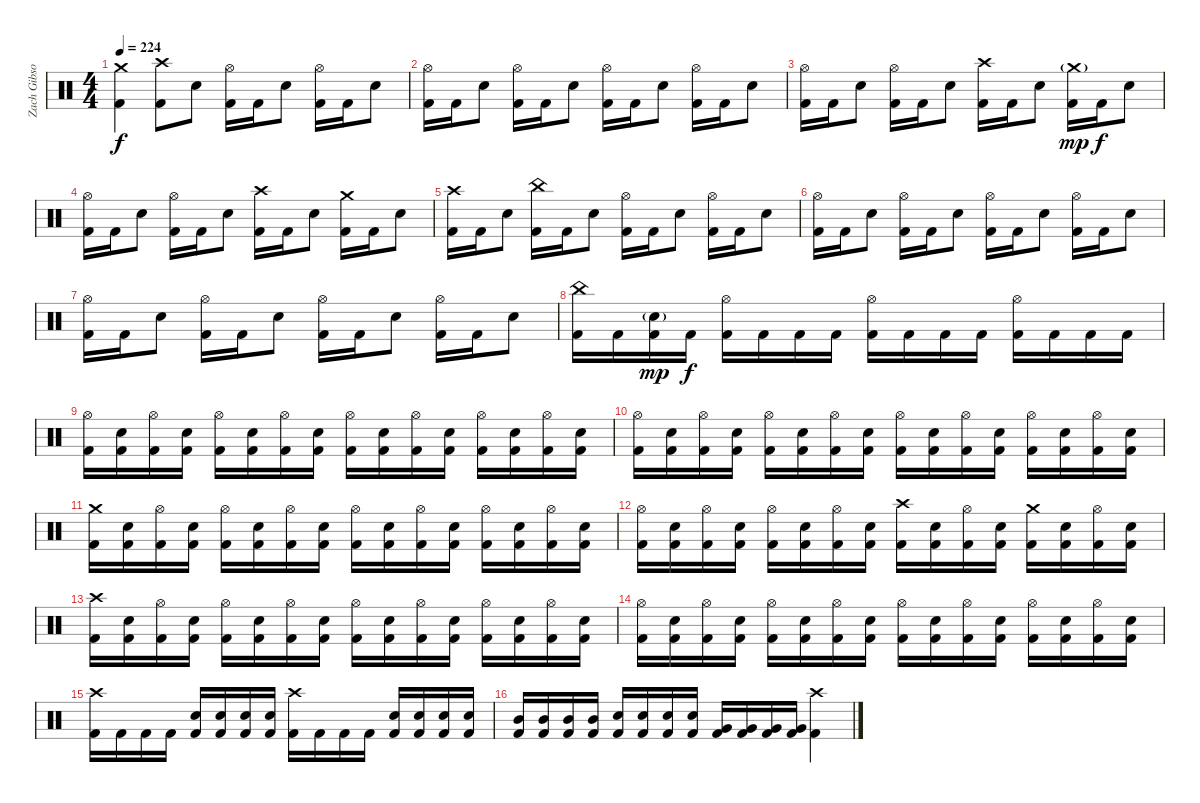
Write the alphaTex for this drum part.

\track ("Zach Gibson (Drums)" "Zach Gibso") {instrument percussion}
\staff {score}
\articulation defaults
\ts (4 4)
\tempo 224
\clef neutral
\ks c
("Crash medium (hit)" "Kick (hit) 2").4{dy f} ("Crash high (hit)" "Kick (hit) 2").8 "Snare (hit) 2".8 ("Hi-Hat (open)" "Kick (hit) 2").16 "Kick (hit) 2".16 "Snare (hit) 2".8 ("Hi-Hat (open)" "Kick (hit) 2").16 "Kick (hit) 2".16 "Snare (hit) 2".8 |
("Hi-Hat (open)" "Kick (hit) 2").16 "Kick (hit) 2".16 "Snare (hit) 2".8 ("Hi-Hat (open)" "Kick (hit) 2").16 "Kick (hit) 2".16 "Snare (hit) 2".8 ("Hi-Hat (open)" "Kick (hit) 2").16 "Kick (hit) 2".16 "Snare (hit) 2".8 ("Hi-Hat (open)" "Kick (hit) 2").16 "Kick (hit) 2".16 "Snare (hit) 2".8 |
("Hi-Hat (open)" "Kick (hit) 2").16 "Kick (hit) 2".16 "Snare (hit) 2".8 ("Hi-Hat (open)" "Kick (hit) 2").16 "Kick (hit) 2".16 "Snare (hit) 2".8 ("Crash high (hit)" "Kick (hit) 2").16 "Kick (hit) 2".16 "Snare (hit) 2".8 ("Crash medium (hit)"{g} "Kick (hit) 2").16{dy mp} "Kick (hit) 2".16{dy f} "Snare (hit) 2".8 |
("Hi-Hat (open)" "Kick (hit) 2").16 "Kick (hit) 2".16 "Snare (hit) 2".8 ("Hi-Hat (open)" "Kick (hit) 2").16 "Kick (hit) 2".16 "Snare (hit) 2".8 ("Crash high (hit)" "Kick (hit) 2").16 "Kick (hit) 2".16 "Snare (hit) 2".8 ("Crash medium (hit)" "Kick (hit) 2").16 "Kick (hit) 2".16 "Snare (hit) 2".8 |
("Crash high (hit)" "Kick (hit) 2").16 "Kick (hit) 2".16 "Snare (hit) 2".8 ("China (hit)" "Kick (hit) 2").16 "Kick (hit) 2".16 "Snare (hit) 2".8 ("Hi-Hat (open)" "Kick (hit) 2").16 "Kick (hit) 2".16 "Snare (hit) 2".8 ("Hi-Hat (open)" "Kick (hit) 2").16 "Kick (hit) 2".16 "Snare (hit) 2".8 |
("Hi-Hat (open)" "Kick (hit) 2").16 "Kick (hit) 2".16 "Snare (hit) 2".8 ("Hi-Hat (open)" "Kick (hit) 2").16 "Kick (hit) 2".16 "Snare (hit) 2".8 ("Hi-Hat (open)" "Kick (hit) 2").16 "Kick (hit) 2".16 "Snare (hit) 2".8 ("Hi-Hat (open)" "Kick (hit) 2").16 "Kick (hit) 2".16 "Snare (hit) 2".8 |
("Hi-Hat (open)" "Kick (hit) 2").16 "Kick (hit) 2".16 "Snare (hit) 2".8 ("Hi-Hat (open)" "Kick (hit) 2").16 "Kick (hit) 2".16 "Snare (hit) 2".8 ("Hi-Hat (open)" "Kick (hit) 2").16 "Kick (hit) 2".16 "Snare (hit) 2".8 ("Hi-Hat (open)" "Kick (hit) 2").16 "Kick (hit) 2".16 "Snare (hit) 2".8 |
("China (hit)" "Kick (hit) 2").16 "Kick (hit) 2".16 ("Snare (hit) 2"{g} "Kick (hit) 2").16{dy mp} "Kick (hit) 2".16{dy f} ("Hi-Hat (open)" "Kick (hit) 2").16 "Kick (hit) 2".16 "Kick (hit) 2".16 "Kick (hit) 2".16 ("Hi-Hat (open)" "Kick (hit) 2").16 "Kick (hit) 2".16 "Kick (hit) 2".16 "Kick (hit) 2".16 ("Hi-Hat (open)" "Kick (hit) 2").16 "Kick (hit) 2".16 "Kick (hit) 2".16 "Kick (hit) 2".16 |
("Hi-Hat (open)" "Kick (hit) 2").16 ("Snare (hit) 2" "Kick (hit) 2").16 ("Hi-Hat (open)" "Kick (hit) 2").16 ("Snare (hit) 2" "Kick (hit) 2").16 ("Hi-Hat (open)" "Kick (hit) 2").16 ("Snare (hit) 2" "Kick (hit) 2").16 ("Hi-Hat (open)" "Kick (hit) 2").16 ("Snare (hit) 2" "Kick (hit) 2").16 ("Hi-Hat (open)" "Kick (hit) 2").16 ("Snare (hit) 2" "Kick (hit) 2").16 ("Hi-Hat (open)" "Kick (hit) 2").16 ("Snare (hit) 2" "Kick (hit) 2").16 ("Hi-Hat (open)" "Kick (hit) 2").16 ("Snare (hit) 2" "Kick (hit) 2").16 ("Hi-Hat (open)" "Kick (hit) 2").16 ("Snare (hit) 2" "Kick (hit) 2").16 |
("Hi-Hat (open)" "Kick (hit) 2").16 ("Snare (hit) 2" "Kick (hit) 2").16 ("Hi-Hat (open)" "Kick (hit) 2").16 ("Snare (hit) 2" "Kick (hit) 2").16 ("Hi-Hat (open)" "Kick (hit) 2").16 ("Snare (hit) 2" "Kick (hit) 2").16 ("Hi-Hat (open)" "Kick (hit) 2").16 ("Snare (hit) 2" "Kick (hit) 2").16 ("Hi-Hat (open)" "Kick (hit) 2").16 ("Snare (hit) 2" "Kick (hit) 2").16 ("Hi-Hat (open)" "Kick (hit) 2").16 ("Snare (hit) 2" "Kick (hit) 2").16 ("Hi-Hat (open)" "Kick (hit) 2").16 ("Snare (hit) 2" "Kick (hit) 2").16 ("Hi-Hat (open)" "Kick (hit) 2").16 ("Snare (hit) 2" "Kick (hit) 2").16 |
("Crash medium (hit)" "Kick (hit) 2").16 ("Snare (hit) 2" "Kick (hit) 2").16 ("Hi-Hat (open)" "Kick (hit) 2").16 ("Snare (hit) 2" "Kick (hit) 2").16 ("Hi-Hat (open)" "Kick (hit) 2").16 ("Snare (hit) 2" "Kick (hit) 2").16 ("Hi-Hat (open)" "Kick (hit) 2").16 ("Snare (hit) 2" "Kick (hit) 2").16 ("Hi-Hat (open)" "Kick (hit) 2").16 ("Snare (hit) 2" "Kick (hit) 2").16 ("Hi-Hat (open)" "Kick (hit) 2").16 ("Snare (hit) 2" "Kick (hit) 2").16 ("Hi-Hat (open)" "Kick (hit) 2").16 ("Snare (hit) 2" "Kick (hit) 2").16 ("Hi-Hat (open)" "Kick (hit) 2").16 ("Snare (hit) 2" "Kick (hit) 2").16 |
("Hi-Hat (open)" "Kick (hit) 2").16 ("Snare (hit) 2" "Kick (hit) 2").16 ("Hi-Hat (open)" "Kick (hit) 2").16 ("Snare (hit) 2" "Kick (hit) 2").16 ("Hi-Hat (open)" "Kick (hit) 2").16 ("Snare (hit) 2" "Kick (hit) 2").16 ("Hi-Hat (open)" "Kick (hit) 2").16 ("Snare (hit) 2" "Kick (hit) 2").16 ("Crash high (hit)" "Kick (hit) 2").16 ("Snare (hit) 2" "Kick (hit) 2").16 ("Hi-Hat (open)" "Kick (hit) 2").16 ("Snare (hit) 2" "Kick (hit) 2").16 ("Crash medium (hit)" "Kick (hit) 2").16 ("Snare (hit) 2" "Kick (hit) 2").16 ("Hi-Hat (open)" "Kick (hit) 2").16 ("Snare (hit) 2" "Kick (hit) 2").16 |
("Crash high (hit)" "Kick (hit) 2").16 ("Snare (hit) 2" "Kick (hit) 2").16 ("Hi-Hat (open)" "Kick (hit) 2").16 ("Snare (hit) 2" "Kick (hit) 2").16 ("Hi-Hat (open)" "Kick (hit) 2").16 ("Snare (hit) 2" "Kick (hit) 2").16 ("Hi-Hat (open)" "Kick (hit) 2").16 ("Snare (hit) 2" "Kick (hit) 2").16 ("Hi-Hat (open)" "Kick (hit) 2").16 ("Snare (hit) 2" "Kick (hit) 2").16 ("Hi-Hat (open)" "Kick (hit) 2").16 ("Snare (hit) 2" "Kick (hit) 2").16 ("Hi-Hat (open)" "Kick (hit) 2").16 ("Snare (hit) 2" "Kick (hit) 2").16 ("Hi-Hat (open)" "Kick (hit) 2").16 ("Snare (hit) 2" "Kick (hit) 2").16 |
("Hi-Hat (open)" "Kick (hit) 2").16 ("Snare (hit) 2" "Kick (hit) 2").16 ("Hi-Hat (open)" "Kick (hit) 2").16 ("Snare (hit) 2" "Kick (hit) 2").16 ("Hi-Hat (open)" "Kick (hit) 2").16 ("Snare (hit) 2" "Kick (hit) 2").16 ("Hi-Hat (open)" "Kick (hit) 2").16 ("Snare (hit) 2" "Kick (hit) 2").16 ("Hi-Hat (open)" "Kick (hit) 2").16 ("Snare (hit) 2" "Kick (hit) 2").16 ("Hi-Hat (open)" "Kick (hit) 2").16 ("Snare (hit) 2" "Kick (hit) 2").16 ("Hi-Hat (open)" "Kick (hit) 2").16 ("Snare (hit) 2" "Kick (hit) 2").16 ("Hi-Hat (open)" "Kick (hit) 2").16 ("Snare (hit) 2" "Kick (hit) 2").16 |
("Crash high (hit)" "Kick (hit) 2").16 "Kick (hit) 2".16 "Kick (hit) 2".16 "Kick (hit) 2".16 ("Snare (hit) 2" "Kick (hit) 2").16 ("Snare (hit) 2" "Kick (hit) 2").16 ("Snare (hit) 2" "Kick (hit) 2").16 ("Snare (hit) 2" "Kick (hit) 2").16 ("Crash high (hit)" "Kick (hit) 2").16 "Kick (hit) 2".16 "Kick (hit) 2".16 "Kick (hit) 2".16 ("Snare (hit) 2" "Kick (hit) 2").16 ("Snare (hit) 2" "Kick (hit) 2").16 ("Snare (hit) 2" "Kick (hit) 2").16 ("Snare (hit) 2" "Kick (hit) 2").16 |
("Mid Tom (hit)" "Kick (hit) 2").16 ("Mid Tom (hit)" "Kick (hit) 2").16 ("Mid Tom (hit)" "Kick (hit) 2").16 ("Mid Tom (hit)" "Kick (hit) 2").16 ("Snare (hit) 2" "Kick (hit) 2").16 ("Snare (hit) 2" "Kick (hit) 2").16 ("Snare (hit) 2" "Kick (hit) 2").16 ("Snare (hit) 2" "Kick (hit) 2").16 ("Very Low Tom (hit)" "Kick (hit) 2").16 ("Very Low Tom (hit)" "Kick (hit) 2").16 ("Very Low Tom (hit)" "Kick (hit) 2").16 ("Very Low Tom (hit)" "Kick (hit) 2").16 ("Crash high (hit)" "Kick (hit) 2").4
